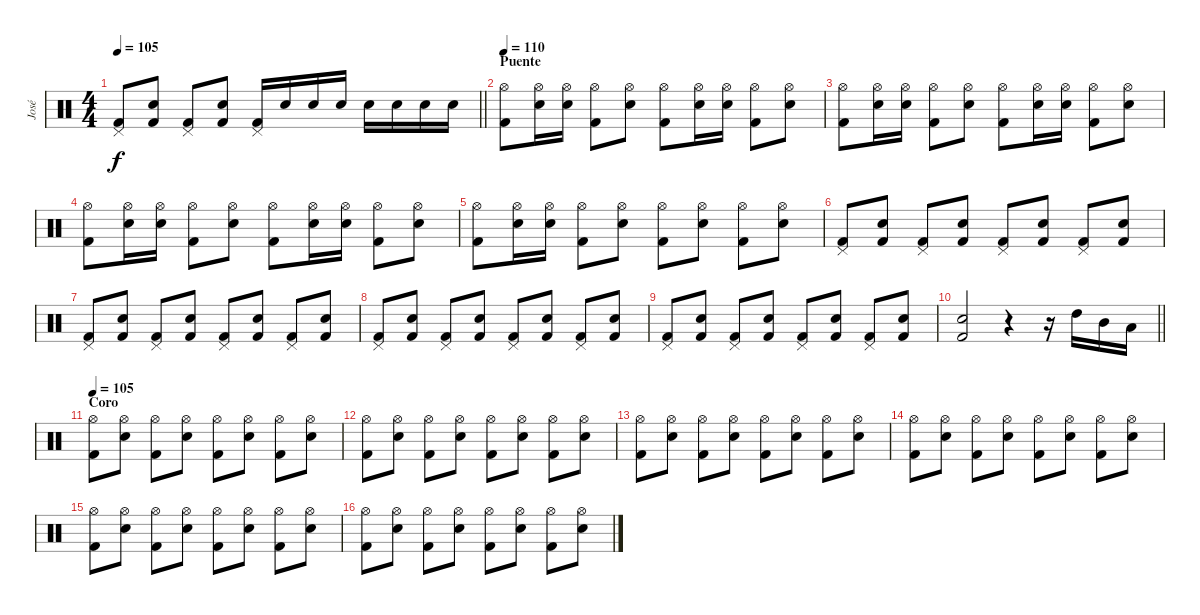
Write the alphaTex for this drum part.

\track ("José" "José") {instrument percussion}
\staff
\articulation defaults
\ts (4 4)
\tempo 105
\clef neutral
\barLineRight lightlight
\ks c
("Pedal Hi-Hat (hit)" "Kick (hit) 2").8{dy f} ("Electric Snare (hit)" "Kick (hit) 2").8 ("Pedal Hi-Hat (hit)" "Kick (hit) 2").8 ("Electric Snare (hit)" "Kick (hit) 2").8 ("Pedal Hi-Hat (hit)" "Kick (hit) 2").16 "Electric Snare (hit)".16 "Electric Snare (hit)".16 "Electric Snare (hit)".16 "Electric Snare (hit)".16 "Electric Snare (hit)".16 "Electric Snare (hit)".16 "Electric Snare (hit)".16 |
\section ("" "Puente")
\tempo 120
\tempo 110
("Hi-Hat (open)" "Kick (hit) 2").8 ("Hi-Hat (open)" "Electric Snare (hit)").16 ("Hi-Hat (open)" "Electric Snare (hit)").16 ("Hi-Hat (open)" "Kick (hit) 2").8 ("Hi-Hat (open)" "Electric Snare (hit)").8 ("Hi-Hat (open)" "Kick (hit) 2").8 ("Hi-Hat (open)" "Electric Snare (hit)").16 ("Hi-Hat (open)" "Electric Snare (hit)").16 ("Hi-Hat (open)" "Kick (hit) 2").8 ("Hi-Hat (open)" "Electric Snare (hit)").8 |
("Hi-Hat (open)" "Kick (hit) 2").8 ("Hi-Hat (open)" "Electric Snare (hit)").16 ("Hi-Hat (open)" "Electric Snare (hit)").16 ("Hi-Hat (open)" "Kick (hit) 2").8 ("Hi-Hat (open)" "Electric Snare (hit)").8 ("Hi-Hat (open)" "Kick (hit) 2").8 ("Hi-Hat (open)" "Electric Snare (hit)").16 ("Hi-Hat (open)" "Electric Snare (hit)").16 ("Hi-Hat (open)" "Kick (hit) 2").8 ("Hi-Hat (open)" "Electric Snare (hit)").8 |
("Hi-Hat (open)" "Kick (hit) 2").8 ("Hi-Hat (open)" "Electric Snare (hit)").16 ("Hi-Hat (open)" "Electric Snare (hit)").16 ("Hi-Hat (open)" "Kick (hit) 2").8 ("Hi-Hat (open)" "Electric Snare (hit)").8 ("Hi-Hat (open)" "Kick (hit) 2").8 ("Hi-Hat (open)" "Electric Snare (hit)").16 ("Hi-Hat (open)" "Electric Snare (hit)").16 ("Hi-Hat (open)" "Kick (hit) 2").8 ("Hi-Hat (open)" "Electric Snare (hit)").8 |
("Hi-Hat (open)" "Kick (hit) 2").8 ("Hi-Hat (open)" "Electric Snare (hit)").16 ("Hi-Hat (open)" "Electric Snare (hit)").16 ("Hi-Hat (open)" "Kick (hit) 2").8 ("Hi-Hat (open)" "Electric Snare (hit)").8 ("Hi-Hat (open)" "Kick (hit) 2").8 ("Hi-Hat (open)" "Electric Snare (hit)").8 ("Hi-Hat (open)" "Kick (hit) 2").8 ("Hi-Hat (open)" "Electric Snare (hit)").8 |
("Pedal Hi-Hat (hit)" "Kick (hit) 2").8 ("Electric Snare (hit)" "Kick (hit) 2").8 ("Pedal Hi-Hat (hit)" "Kick (hit) 2").8 ("Electric Snare (hit)" "Kick (hit) 2").8 ("Pedal Hi-Hat (hit)" "Kick (hit) 2").8 ("Electric Snare (hit)" "Kick (hit) 2").8 ("Pedal Hi-Hat (hit)" "Kick (hit) 2").8 ("Electric Snare (hit)" "Kick (hit) 2").8 |
("Pedal Hi-Hat (hit)" "Kick (hit) 2").8 ("Electric Snare (hit)" "Kick (hit) 2").8 ("Pedal Hi-Hat (hit)" "Kick (hit) 2").8 ("Electric Snare (hit)" "Kick (hit) 2").8 ("Pedal Hi-Hat (hit)" "Kick (hit) 2").8 ("Electric Snare (hit)" "Kick (hit) 2").8 ("Pedal Hi-Hat (hit)" "Kick (hit) 2").8 ("Electric Snare (hit)" "Kick (hit) 2").8 |
("Pedal Hi-Hat (hit)" "Kick (hit) 2").8 ("Electric Snare (hit)" "Kick (hit) 2").8 ("Pedal Hi-Hat (hit)" "Kick (hit) 2").8 ("Electric Snare (hit)" "Kick (hit) 2").8 ("Pedal Hi-Hat (hit)" "Kick (hit) 2").8 ("Electric Snare (hit)" "Kick (hit) 2").8 ("Pedal Hi-Hat (hit)" "Kick (hit) 2").8 ("Electric Snare (hit)" "Kick (hit) 2").8 |
("Pedal Hi-Hat (hit)" "Kick (hit) 2").8 ("Electric Snare (hit)" "Kick (hit) 2").8 ("Pedal Hi-Hat (hit)" "Kick (hit) 2").8 ("Electric Snare (hit)" "Kick (hit) 2").8 ("Pedal Hi-Hat (hit)" "Kick (hit) 2").8 ("Electric Snare (hit)" "Kick (hit) 2").8 ("Pedal Hi-Hat (hit)" "Kick (hit) 2").8 ("Electric Snare (hit)" "Kick (hit) 2").8 |
\barLineRight lightlight
("Electric Snare (hit)" "Kick (hit) 2").2 r.4 r.16 "High Tom (hit)".16 "Mid Tom (hit)".16 "Low Tom (hit)".16 |
\section ("" "Coro")
\tempo 105
("Hi-Hat (open)" "Kick (hit) 2").8 ("Hi-Hat (open)" "Electric Snare (hit)").8 ("Hi-Hat (open)" "Kick (hit) 2").8 ("Hi-Hat (open)" "Electric Snare (hit)").8 ("Hi-Hat (open)" "Kick (hit) 2").8 ("Hi-Hat (open)" "Electric Snare (hit)").8 ("Hi-Hat (open)" "Kick (hit) 2").8 ("Hi-Hat (open)" "Electric Snare (hit)").8 |
("Hi-Hat (open)" "Kick (hit) 2").8 ("Hi-Hat (open)" "Electric Snare (hit)").8 ("Hi-Hat (open)" "Kick (hit) 2").8 ("Hi-Hat (open)" "Electric Snare (hit)").8 ("Hi-Hat (open)" "Kick (hit) 2").8 ("Hi-Hat (open)" "Electric Snare (hit)").8 ("Hi-Hat (open)" "Kick (hit) 2").8 ("Hi-Hat (open)" "Electric Snare (hit)").8 |
("Hi-Hat (open)" "Kick (hit) 2").8 ("Hi-Hat (open)" "Electric Snare (hit)").8 ("Hi-Hat (open)" "Kick (hit) 2").8 ("Hi-Hat (open)" "Electric Snare (hit)").8 ("Hi-Hat (open)" "Kick (hit) 2").8 ("Hi-Hat (open)" "Electric Snare (hit)").8 ("Hi-Hat (open)" "Kick (hit) 2").8 ("Hi-Hat (open)" "Electric Snare (hit)").8 |
("Hi-Hat (open)" "Kick (hit) 2").8 ("Hi-Hat (open)" "Electric Snare (hit)").8 ("Hi-Hat (open)" "Kick (hit) 2").8 ("Hi-Hat (open)" "Electric Snare (hit)").8 ("Hi-Hat (open)" "Kick (hit) 2").8 ("Hi-Hat (open)" "Electric Snare (hit)").8 ("Hi-Hat (open)" "Kick (hit) 2").8 ("Hi-Hat (open)" "Electric Snare (hit)").8 |
("Hi-Hat (open)" "Kick (hit) 2").8 ("Hi-Hat (open)" "Electric Snare (hit)").8 ("Hi-Hat (open)" "Kick (hit) 2").8 ("Hi-Hat (open)" "Electric Snare (hit)").8 ("Hi-Hat (open)" "Kick (hit) 2").8 ("Hi-Hat (open)" "Electric Snare (hit)").8 ("Hi-Hat (open)" "Kick (hit) 2").8 ("Hi-Hat (open)" "Electric Snare (hit)").8 |
("Hi-Hat (open)" "Kick (hit) 2").8 ("Hi-Hat (open)" "Electric Snare (hit)").8 ("Hi-Hat (open)" "Kick (hit) 2").8 ("Hi-Hat (open)" "Electric Snare (hit)").8 ("Hi-Hat (open)" "Kick (hit) 2").8 ("Hi-Hat (open)" "Electric Snare (hit)").8 ("Hi-Hat (open)" "Kick (hit) 2").8 ("Hi-Hat (open)" "Electric Snare (hit)").8
